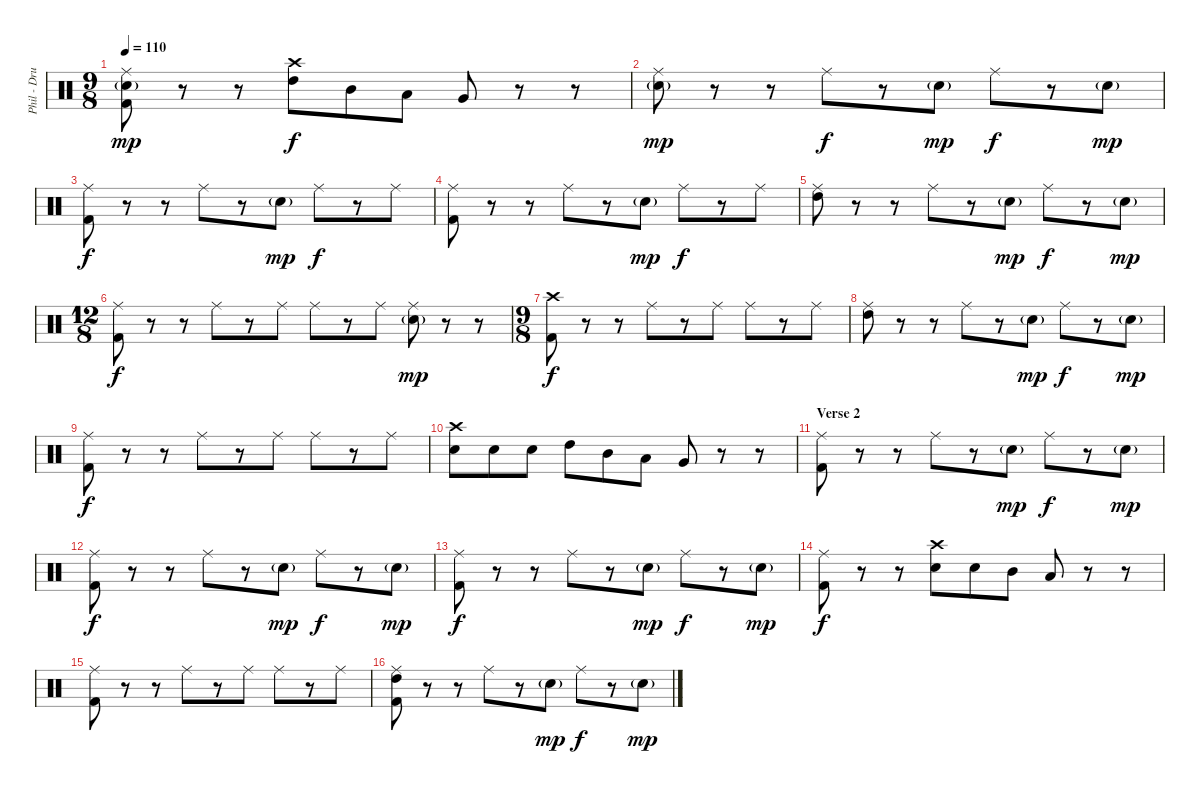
\track ("Phil - Drums" "Phil - Dru") {instrument percussion}
\staff {score}
\articulation defaults
\ts (9 8)
\tempo 110
\clef neutral
\ks c
("Ride (middle)" "Electric Snare (hit)"{g} "Kick (hit) 2").8{dy mp} r.8 r.8 ("Crash high (hit)" "High Tom (hit)").8{dy f} "Mid Tom (hit)".8 "Low Tom (hit)".8 "Very Low Tom (hit)".8 r.8 r.8 |
("Ride (middle)" "Electric Snare (hit)"{g}).8{dy mp} r.8 r.8 "Ride (middle)".8{dy f} r.8 "Electric Snare (hit)"{g}.8{dy mp} "Ride (middle)".8{dy f} r.8 "Electric Snare (hit)"{g}.8{dy mp} |
("Ride (middle)" "Kick (hit) 2").8{dy f} r.8 r.8 "Ride (middle)".8 r.8 "Electric Snare (hit)"{g}.8{dy mp} "Ride (middle)".8{dy f} r.8 "Ride (middle)".8 |
("Ride (middle)" "Kick (hit) 2").8 r.8 r.8 "Ride (middle)".8 r.8 "Electric Snare (hit)"{g}.8{dy mp} "Ride (middle)".8{dy f} r.8 "Ride (middle)".8 |
("Ride (middle)" "High Tom (hit)").8 r.8 r.8 "Ride (middle)".8 r.8 "Electric Snare (hit)"{g}.8{dy mp} "Ride (middle)".8{dy f} r.8 "Electric Snare (hit)"{g}.8{dy mp} |
\ts (12 8)
("Ride (middle)" "Kick (hit) 2").8{dy f} r.8 r.8 "Ride (middle)".8 r.8 "Ride (middle)".8 "Ride (middle)".8 r.8 "Ride (middle)".8 ("Ride (middle)" "Electric Snare (hit)"{g}).8{dy mp} r.8 r.8 |
\ts (9 8)
("Crash high (hit)" "Kick (hit) 2").8{dy f} r.8 r.8 "Ride (middle)".8 r.8 "Ride (middle)".8 "Ride (middle)".8 r.8 "Ride (middle)".8 |
("Ride (middle)" "High Tom (hit)").8 r.8 r.8 "Ride (middle)".8 r.8 "Electric Snare (hit)"{g}.8{dy mp} "Ride (middle)".8{dy f} r.8 "Electric Snare (hit)"{g}.8{dy mp} |
("Ride (middle)" "Kick (hit) 2").8{dy f} r.8 r.8 "Ride (middle)".8 r.8 "Ride (middle)".8 "Ride (middle)".8 r.8 "Ride (middle)".8 |
("Crash high (hit)" "Snare (hit) 2").8 "Electric Snare (hit)".8 "Electric Snare (hit)".8 "High Tom (hit)".8 "Mid Tom (hit)".8 "Low Tom (hit)".8 "Very Low Tom (hit)".8 r.8 r.8 |
\section ("" "Verse 2")
("Ride (middle)" "Kick (hit) 2").8 r.8 r.8 "Ride (middle)".8 r.8 "Electric Snare (hit)"{g}.8{dy mp} "Ride (middle)".8{dy f} r.8 "Electric Snare (hit)"{g}.8{dy mp} |
("Ride (middle)" "Kick (hit) 2").8{dy f} r.8 r.8 "Ride (middle)".8 r.8 "Electric Snare (hit)"{g}.8{dy mp} "Ride (middle)".8{dy f} r.8 "Electric Snare (hit)"{g}.8{dy mp} |
("Ride (middle)" "Kick (hit) 2").8{dy f} r.8 r.8 "Ride (middle)".8 r.8 "Electric Snare (hit)"{g}.8{dy mp} "Ride (middle)".8{dy f} r.8 "Electric Snare (hit)"{g}.8{dy mp} |
("Ride (middle)" "Kick (hit) 2").8{dy f} r.8 r.8 ("Crash high (hit)" "Electric Snare (hit)").8 "Electric Snare (hit)".8 "Mid Tom (hit)".8 "Low Tom (hit)".8 r.8 r.8 |
("Ride (middle)" "Kick (hit) 2").8 r.8 r.8 "Ride (middle)".8 r.8 "Ride (middle)".8 "Ride (middle)".8 r.8 "Ride (middle)".8 |
("Ride (middle)" "High Tom (hit)" "Kick (hit) 2").8 r.8 r.8 "Ride (middle)".8 r.8 "Electric Snare (hit)"{g}.8{dy mp} "Ride (middle)".8{dy f} r.8 "Electric Snare (hit)"{g}.8{dy mp}
